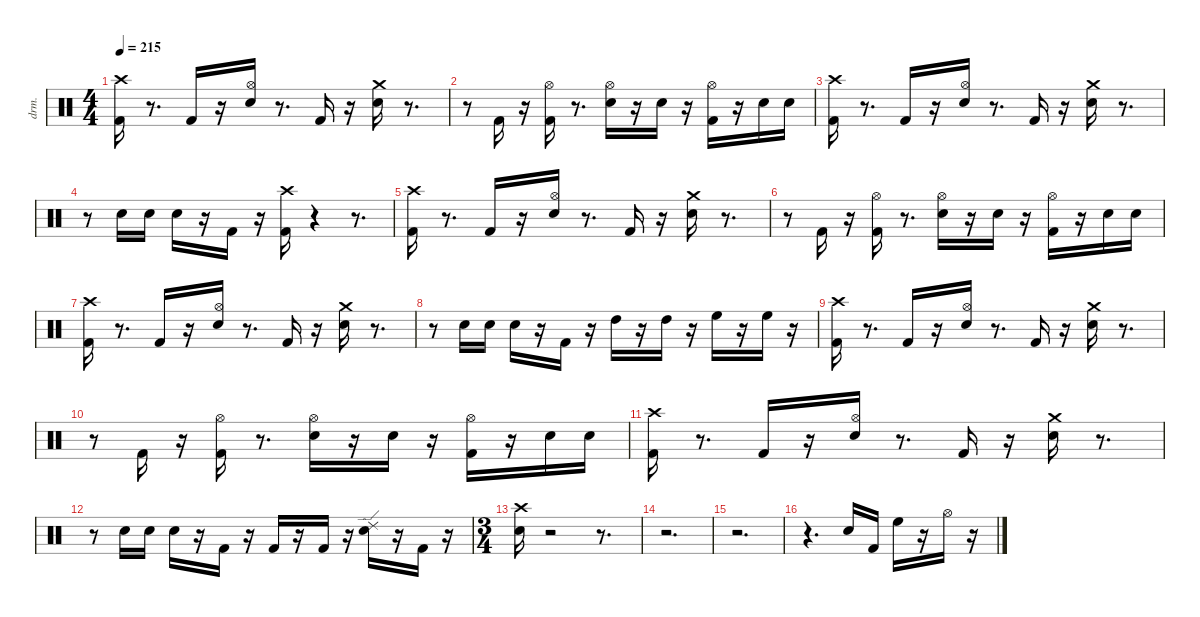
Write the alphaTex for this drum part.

\defaultSystemsLayout 4
\hideDynamics
\bracketExtendMode nobrackets
\otherSystemsTrackNameOrientation horizontal
\track ("drums(暫定)" "drm.") {instrument percussion}
\staff {score}
\articulation defaults
\ts (4 4)
\tempo 215
\clef neutral
\ks aminor
("Kick (hit) 2" "Crash high (hit)"{acc #}).16{dy fff beam Down} r.8{d beam Down} "Kick (hit) 2".16{dy f beam Up} r.16{beam Up} ("Snare (hit) 2" "Hi-Hat (open)"{acc #}).16{dy ff beam Down} r.8{d beam Down} "Kick (hit) 2".16{beam Up} r.16{beam Up} ("Snare (hit) 2" "Crash medium (hit)").16{beam Down} r.8{d beam Down} |
r.8{beam Down} "Kick (hit) 2".16{dy mf beam Up} r.16{beam Up} ("Kick (hit) 2" "Hi-Hat (open)"{acc #}).16{dy fff beam Down} r.8{d beam Down} ("Snare (hit) 2" "Hi-Hat (open)"{acc #}).16{beam Down} r.16{beam Down} "Snare (hit) 2".16{dy p beam Down} r.16{beam Down} ("Kick (hit) 2" "Hi-Hat (open)"{acc #}).16{dy ff beam Down} r.16{beam Down} "Snare (hit) 2".16{dy mp beam Down} "Snare (hit) 2".16{dy ppp beam Down} |
("Kick (hit) 2" "Crash high (hit)"{acc #}).16{dy fff beam Down} r.8{d beam Down} "Kick (hit) 2".16{dy f beam Up} r.16{beam Up} ("Snare (hit) 2" "Hi-Hat (open)"{acc #}).16{dy ff beam Down} r.8{d beam Down} "Kick (hit) 2".16{beam Up} r.16{beam Up} ("Snare (hit) 2" "Crash medium (hit)").16{beam Down} r.8{d beam Down} |
r.8{beam Down} "Snare (hit) 2".16{dy mf beam Down} "Snare (hit) 2".16{dy p beam Down} "Snare (hit) 2".16{dy ff beam Down} r.16{beam Down} "Kick (hit) 2".16{dy mf beam Up} r.16{beam Up} ("Kick (hit) 2" "Crash high (hit)"{acc #}).16{dy fff beam Down} r.4{beam Down} r.8{d beam Down} |
("Kick (hit) 2" "Crash high (hit)"{acc #}).16{beam Down} r.8{d beam Down} "Kick (hit) 2".16{dy f beam Up} r.16{beam Up} ("Snare (hit) 2" "Hi-Hat (open)"{acc #}).16{dy ff beam Down} r.8{d beam Down} "Kick (hit) 2".16{beam Up} r.16{beam Up} ("Snare (hit) 2" "Crash medium (hit)").16{beam Down} r.8{d beam Down} |
r.8{beam Down} "Kick (hit) 2".16{dy mf beam Up} r.16{beam Up} ("Kick (hit) 2" "Hi-Hat (open)"{acc #}).16{dy fff beam Down} r.8{d beam Down} ("Snare (hit) 2" "Hi-Hat (open)"{acc #}).16{beam Down} r.16{beam Down} "Snare (hit) 2".16{dy p beam Down} r.16{beam Down} ("Kick (hit) 2" "Hi-Hat (open)"{acc #}).16{dy ff beam Down} r.16{beam Down} "Snare (hit) 2".16{dy mp beam Down} "Snare (hit) 2".16{dy ppp beam Down} |
("Kick (hit) 2" "Crash high (hit)"{acc #}).16{dy fff beam Down} r.8{d beam Down} "Kick (hit) 2".16{dy f beam Up} r.16{beam Up} ("Snare (hit) 2" "Hi-Hat (open)"{acc #}).16{dy ff beam Down} r.8{d beam Down} "Kick (hit) 2".16{beam Up} r.16{beam Up} ("Snare (hit) 2" "Crash medium (hit)").16{beam Down} r.8{d beam Down} |
r.8{beam Down} "Snare (hit) 2".16{dy mf beam Down} "Snare (hit) 2".16{dy p beam Down} "Snare (hit) 2".16{dy ff beam Down} r.16{beam Down} "Kick (hit) 2".16{beam Up} r.16{beam Up} "High Tom (hit)".16{beam Down} r.16{beam Down} "High Tom (hit)".16{dy f beam Down} r.16{beam Down} "High Floor Tom (hit)".16{dy ff beam Down} r.16{beam Down} "High Floor Tom (hit)".16{dy f beam Down} r.16{beam Down} |
("Kick (hit) 2" "Crash high (hit)"{acc #}).16{dy fff beam Down} r.8{d beam Down} "Kick (hit) 2".16{dy f beam Up} r.16{beam Up} ("Snare (hit) 2" "Hi-Hat (open)"{acc #}).16{dy ff beam Down} r.8{d beam Down} "Kick (hit) 2".16{beam Up} r.16{beam Up} ("Snare (hit) 2" "Crash medium (hit)").16{beam Down} r.8{d beam Down} |
r.8{beam Down} "Kick (hit) 2".16{dy mf beam Up} r.16{beam Up} ("Kick (hit) 2" "Hi-Hat (open)"{acc #}).16{dy fff beam Down} r.8{d beam Down} ("Snare (hit) 2" "Hi-Hat (open)"{acc #}).16{beam Down} r.16{beam Down} "Snare (hit) 2".16{dy p beam Down} r.16{beam Down} ("Kick (hit) 2" "Hi-Hat (open)"{acc #}).16{dy ff beam Down} r.16{beam Down} "Snare (hit) 2".16{dy mp beam Down} "Snare (hit) 2".16{dy ppp beam Down} |
("Kick (hit) 2" "Crash high (hit)"{acc #}).16{dy fff beam Down} r.8{d beam Down} "Kick (hit) 2".16{dy f beam Up} r.16{beam Up} ("Snare (hit) 2" "Hi-Hat (open)"{acc #}).16{dy ff beam Down} r.8{d beam Down} "Kick (hit) 2".16{beam Up} r.16{beam Up} ("Snare (hit) 2" "Crash medium (hit)").16{beam Down} r.8{d beam Down} |
r.8{beam Down} "Snare (hit) 2".16{dy mf beam Down} "Snare (hit) 2".16{dy p beam Down} "Snare (hit) 2".16{dy ff beam Down} r.16{beam Down} "Kick (hit) 2".16{dy mf beam Up} r.16{beam Up} "Kick (hit) 2".16{dy fff beam Up} r.16{beam Up} "Kick (hit) 2".16{dy ff beam Up} r.16{beam Up} ("Snare (hit) 2" "Ride (edge) 2").16{beam Down} r.16{beam Down} "Kick (hit) 2".16{dy f beam Up} r.16{beam Up} |
\ts (3 4)
("Snare (hit) 2" "Crash high (hit)"{acc #}).16{dy fff beam Down} r.2{beam Down} r.8{d beam Down} |
r.2{d beam Down} |
r.2{d beam Down} |
r.4{d beam Down} "Snare (hit) 2".16{dy ff beam Up} "Kick (hit) 2".16{dy mf beam Up} "High Floor Tom (hit)".16{dy ff beam Down} r.16{beam Down} "Hi-Hat (open)"{acc #}.16{dy fff beam Down} r.16{beam Down}
